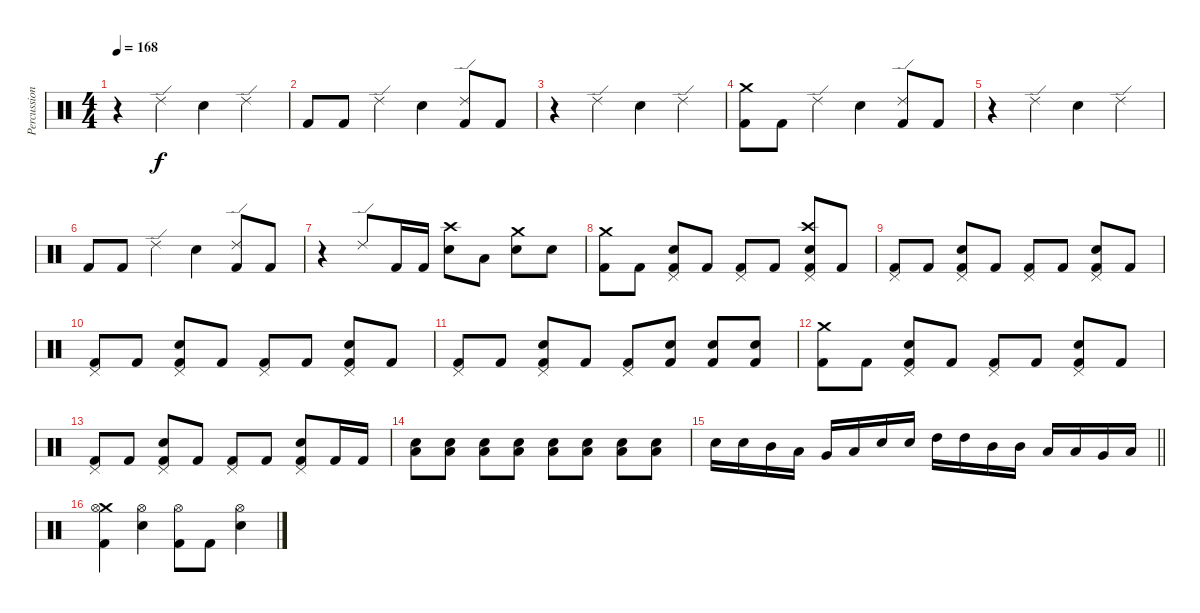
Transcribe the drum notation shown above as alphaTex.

\track ("Percussions" "Percussion") {instrument percussion}
\staff {score}
\articulation defaults
\ts (4 4)
\tempo 168
\clef neutral
\ks c
r.4{dy f} "Ride (edge) 2".4 "Snare (hit) 2".4 "Ride (edge) 2".4 |
"Kick (hit) 2".8 "Kick (hit) 2".8 "Ride (edge) 2".4 "Snare (hit) 2".4 ("Ride (edge) 2" "Kick (hit) 2").8 "Kick (hit) 2".8 |
r.4 "Ride (edge) 2".4 "Snare (hit) 2".4 "Ride (edge) 2".4 |
("Crash medium (hit)" "Kick (hit) 2").8 "Kick (hit) 2".8 "Ride (edge) 2".4 "Snare (hit) 2".4 ("Ride (edge) 2" "Kick (hit) 2").8 "Kick (hit) 2".8 |
r.4 "Ride (edge) 2".4 "Snare (hit) 2".4 "Ride (edge) 2".4 |
"Kick (hit) 2".8 "Kick (hit) 2".8 "Ride (edge) 2".4 "Snare (hit) 2".4 ("Ride (edge) 2" "Kick (hit) 2").8 "Kick (hit) 2".8 |
r.4 "Ride (edge) 2".8 "Kick (hit) 2".16 "Kick (hit) 2".16 ("Crash high (hit)" "Snare (hit) 2").8 "Low Tom (hit)".8 ("Crash medium (hit)" "Snare (hit) 2").8 "Snare (hit) 2".8 |
("Crash medium (hit)" "Kick (hit) 2").8 "Kick (hit) 2".8 ("Pedal Hi-Hat (hit)" "Snare (hit) 2" "Kick (hit) 2").8 "Kick (hit) 2".8 ("Pedal Hi-Hat (hit)" "Kick (hit) 2").8 "Kick (hit) 2".8 ("Crash high (hit)" "Pedal Hi-Hat (hit)" "Snare (hit) 2" "Kick (hit) 2").8 "Kick (hit) 2".8 |
("Pedal Hi-Hat (hit)" "Kick (hit) 2").8 "Kick (hit) 2".8 ("Pedal Hi-Hat (hit)" "Snare (hit) 2" "Kick (hit) 2").8 "Kick (hit) 2".8 ("Pedal Hi-Hat (hit)" "Kick (hit) 2").8 "Kick (hit) 2".8 ("Pedal Hi-Hat (hit)" "Snare (hit) 2" "Kick (hit) 2").8 "Kick (hit) 2".8 |
("Pedal Hi-Hat (hit)" "Kick (hit) 2").8 "Kick (hit) 2".8 ("Pedal Hi-Hat (hit)" "Snare (hit) 2" "Kick (hit) 2").8 "Kick (hit) 2".8 ("Pedal Hi-Hat (hit)" "Kick (hit) 2").8 "Kick (hit) 2".8 ("Pedal Hi-Hat (hit)" "Snare (hit) 2" "Kick (hit) 2").8 "Kick (hit) 2".8 |
("Pedal Hi-Hat (hit)" "Kick (hit) 2").8 "Kick (hit) 2".8 ("Pedal Hi-Hat (hit)" "Snare (hit) 2" "Kick (hit) 2").8 "Kick (hit) 2".8 ("Pedal Hi-Hat (hit)" "Kick (hit) 2").8 ("Snare (hit) 2" "Kick (hit) 2").8 ("Snare (hit) 2" "Kick (hit) 2").8 ("Snare (hit) 2" "Kick (hit) 2").8 |
("Crash medium (hit)" "Kick (hit) 2").8 "Kick (hit) 2".8 ("Pedal Hi-Hat (hit)" "Snare (hit) 2" "Kick (hit) 2").8 "Kick (hit) 2".8 ("Pedal Hi-Hat (hit)" "Kick (hit) 2").8 "Kick (hit) 2".8 ("Pedal Hi-Hat (hit)" "Snare (hit) 2" "Kick (hit) 2").8 "Kick (hit) 2".8 |
("Pedal Hi-Hat (hit)" "Kick (hit) 2").8 "Kick (hit) 2".8 ("Pedal Hi-Hat (hit)" "Snare (hit) 2" "Kick (hit) 2").8 "Kick (hit) 2".8 ("Pedal Hi-Hat (hit)" "Kick (hit) 2").8 "Kick (hit) 2".8 ("Pedal Hi-Hat (hit)" "Snare (hit) 2" "Kick (hit) 2").8 "Kick (hit) 2".16 "Kick (hit) 2".16 |
("Snare (hit) 2" "Low Tom (hit)").8 ("Snare (hit) 2" "Low Tom (hit)").8 ("Snare (hit) 2" "Low Tom (hit)").8 ("Snare (hit) 2" "Low Tom (hit)").8 ("Snare (hit) 2" "Low Tom (hit)").8 ("Snare (hit) 2" "Low Tom (hit)").8 ("Snare (hit) 2" "Low Tom (hit)").8 ("Snare (hit) 2" "Low Tom (hit)").8 |
\barLineRight lightlight "Snare (hit) 2".16 "Snare (hit) 2".16 "Mid Tom (hit)".16 "Low Tom (hit)".16 "Very Low Tom (hit)".16 "Low Floor Tom (hit)".16 "Snare (hit) 2".16 "Snare (hit) 2".16 "High Tom (hit)".16 "High Tom (hit)".16 "Mid Tom (hit)".16 "Mid Tom (hit)".16 "Low Tom (hit)".16 "Low Tom (hit)".16 "Very Low Tom (hit)".16 "Low Floor Tom (hit)".16
|
("Crash medium (hit)" "Hi-Hat (open)" "Kick (hit) 2").4 ("Hi-Hat (open)" "Snare (hit) 2").4 ("Hi-Hat (open)" "Kick (hit) 2").8 "Kick (hit) 2".8 ("Hi-Hat (open)" "Snare (hit) 2").4
